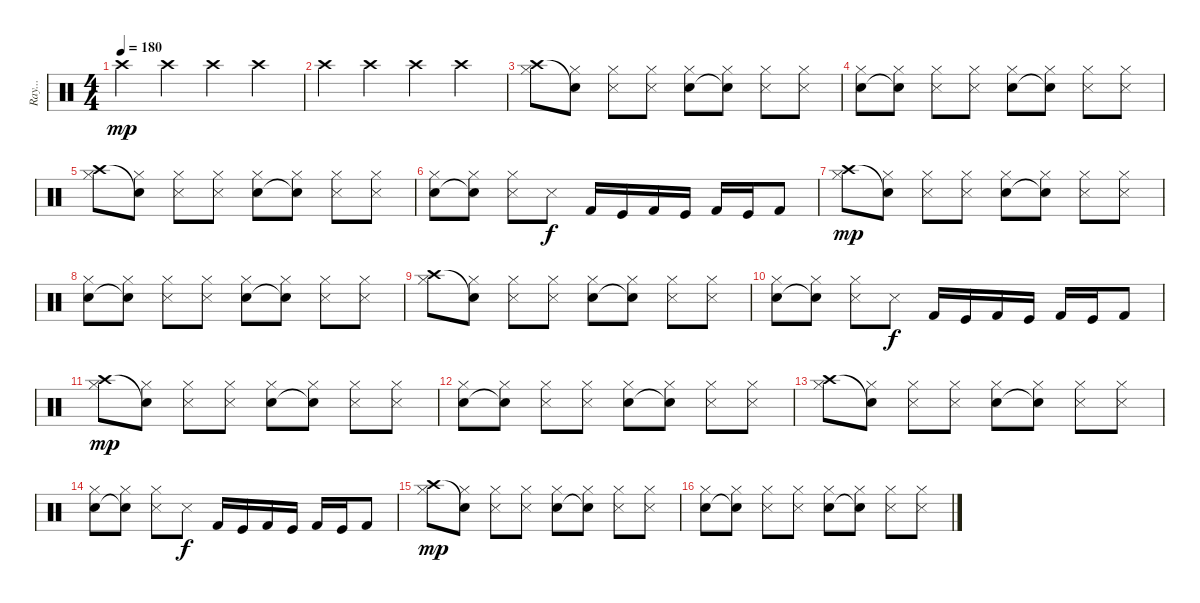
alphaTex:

\track ("Ray..." "Ray...") {instrument percussion}
\staff {score}
\articulation defaults
\ts (4 4)
\tempo 180
\clef neutral
\ks c "Crash high (hit)".4{dy mp} "Crash high (hit)".4 "Crash high (hit)".4 "Crash high (hit)".4
|
"Crash high (hit)".4 "Crash high (hit)".4 "Crash high (hit)".4 "Crash high (hit)".4 |
("Crash high (hit)" "Hi-Hat (closed)").8 ("Snare (hit)"{t} "Hi-Hat (closed)").8 ("Snare (side stick) 3" "Hi-Hat (closed)").8 ("Snare (side stick) 3" "Hi-Hat (closed)").8 ("Snare (hit) 2" "Hi-Hat (closed)").8 ("Snare (hit)"{t} "Hi-Hat (closed)").8 ("Snare (side stick) 3" "Hi-Hat (closed)").8 ("Snare (side stick) 3" "Hi-Hat (closed)").8 |
("Snare (hit) 2" "Hi-Hat (closed)").8 ("Snare (hit)"{t} "Hi-Hat (closed)").8 ("Snare (side stick) 3" "Hi-Hat (closed)").8 ("Snare (side stick) 3" "Hi-Hat (closed)").8 ("Snare (hit) 2" "Hi-Hat (closed)").8 ("Snare (hit)"{t} "Hi-Hat (closed)").8 ("Snare (side stick) 3" "Hi-Hat (closed)").8 ("Snare (side stick) 3" "Hi-Hat (closed)").8 |
("Crash high (hit)" "Hi-Hat (closed)").8 ("Snare (hit)"{t} "Hi-Hat (closed)").8 ("Snare (side stick) 3" "Hi-Hat (closed)").8 ("Snare (side stick) 3" "Hi-Hat (closed)").8 ("Snare (hit) 2" "Hi-Hat (closed)").8 ("Snare (hit)"{t} "Hi-Hat (closed)").8 ("Snare (side stick) 3" "Hi-Hat (closed)").8 ("Snare (side stick) 3" "Hi-Hat (closed)").8 |
("Snare (hit) 2" "Hi-Hat (closed)").8 ("Snare (hit)"{t} "Hi-Hat (closed)").8 ("Snare (side stick) 3" "Hi-Hat (closed)").8 "Snare (side stick) 3".8{dy f} "Kick (hit) 2".16 "Kick (hit)".16 "Kick (hit) 2".16 "Kick (hit)".16 "Kick (hit) 2".16 "Kick (hit)".16 "Kick (hit) 2".8 |
("Crash high (hit)" "Hi-Hat (closed)").8{dy mp} ("Snare (hit)"{t} "Hi-Hat (closed)").8 ("Snare (side stick) 3" "Hi-Hat (closed)").8 ("Snare (side stick) 3" "Hi-Hat (closed)").8 ("Snare (hit) 2" "Hi-Hat (closed)").8 ("Snare (hit)"{t} "Hi-Hat (closed)").8 ("Snare (side stick) 3" "Hi-Hat (closed)").8 ("Snare (side stick) 3" "Hi-Hat (closed)").8 |
("Snare (hit) 2" "Hi-Hat (closed)").8 ("Snare (hit)"{t} "Hi-Hat (closed)").8 ("Snare (side stick) 3" "Hi-Hat (closed)").8 ("Snare (side stick) 3" "Hi-Hat (closed)").8 ("Snare (hit) 2" "Hi-Hat (closed)").8 ("Snare (hit)"{t} "Hi-Hat (closed)").8 ("Snare (side stick) 3" "Hi-Hat (closed)").8 ("Snare (side stick) 3" "Hi-Hat (closed)").8 |
("Crash high (hit)" "Hi-Hat (closed)").8 ("Snare (hit)"{t} "Hi-Hat (closed)").8 ("Snare (side stick) 3" "Hi-Hat (closed)").8 ("Snare (side stick) 3" "Hi-Hat (closed)").8 ("Snare (hit) 2" "Hi-Hat (closed)").8 ("Snare (hit)"{t} "Hi-Hat (closed)").8 ("Snare (side stick) 3" "Hi-Hat (closed)").8 ("Snare (side stick) 3" "Hi-Hat (closed)").8 |
("Snare (hit) 2" "Hi-Hat (closed)").8 ("Snare (hit)"{t} "Hi-Hat (closed)").8 ("Snare (side stick) 3" "Hi-Hat (closed)").8 "Snare (side stick) 3".8{dy f} "Kick (hit) 2".16 "Kick (hit)".16 "Kick (hit) 2".16 "Kick (hit)".16 "Kick (hit) 2".16 "Kick (hit)".16 "Kick (hit) 2".8 |
("Crash high (hit)" "Hi-Hat (closed)").8{dy mp} ("Snare (hit)"{t} "Hi-Hat (closed)").8 ("Snare (side stick) 3" "Hi-Hat (closed)").8 ("Snare (side stick) 3" "Hi-Hat (closed)").8 ("Snare (hit) 2" "Hi-Hat (closed)").8 ("Snare (hit)"{t} "Hi-Hat (closed)").8 ("Snare (side stick) 3" "Hi-Hat (closed)").8 ("Snare (side stick) 3" "Hi-Hat (closed)").8 |
("Snare (hit) 2" "Hi-Hat (closed)").8 ("Snare (hit)"{t} "Hi-Hat (closed)").8 ("Snare (side stick) 3" "Hi-Hat (closed)").8 ("Snare (side stick) 3" "Hi-Hat (closed)").8 ("Snare (hit) 2" "Hi-Hat (closed)").8 ("Snare (hit)"{t} "Hi-Hat (closed)").8 ("Snare (side stick) 3" "Hi-Hat (closed)").8 ("Snare (side stick) 3" "Hi-Hat (closed)").8 |
("Crash high (hit)" "Hi-Hat (closed)").8 ("Snare (hit)"{t} "Hi-Hat (closed)").8 ("Snare (side stick) 3" "Hi-Hat (closed)").8 ("Snare (side stick) 3" "Hi-Hat (closed)").8 ("Snare (hit) 2" "Hi-Hat (closed)").8 ("Snare (hit)"{t} "Hi-Hat (closed)").8 ("Snare (side stick) 3" "Hi-Hat (closed)").8 ("Snare (side stick) 3" "Hi-Hat (closed)").8 |
("Snare (hit) 2" "Hi-Hat (closed)").8 ("Snare (hit)"{t} "Hi-Hat (closed)").8 ("Snare (side stick) 3" "Hi-Hat (closed)").8 "Snare (side stick) 3".8{dy f} "Kick (hit) 2".16 "Kick (hit)".16 "Kick (hit) 2".16 "Kick (hit)".16 "Kick (hit) 2".16 "Kick (hit)".16 "Kick (hit) 2".8 |
("Crash high (hit)" "Hi-Hat (closed)").8{dy mp} ("Snare (hit)"{t} "Hi-Hat (closed)").8 ("Snare (side stick) 3" "Hi-Hat (closed)").8 ("Snare (side stick) 3" "Hi-Hat (closed)").8 ("Snare (hit) 2" "Hi-Hat (closed)").8 ("Snare (hit)"{t} "Hi-Hat (closed)").8 ("Snare (side stick) 3" "Hi-Hat (closed)").8 ("Snare (side stick) 3" "Hi-Hat (closed)").8 |
("Snare (hit) 2" "Hi-Hat (closed)").8 ("Snare (hit)"{t} "Hi-Hat (closed)").8 ("Snare (side stick) 3" "Hi-Hat (closed)").8 ("Snare (side stick) 3" "Hi-Hat (closed)").8 ("Snare (hit) 2" "Hi-Hat (closed)").8 ("Snare (hit)"{t} "Hi-Hat (closed)").8 ("Snare (side stick) 3" "Hi-Hat (closed)").8 ("Snare (side stick) 3" "Hi-Hat (closed)").8
